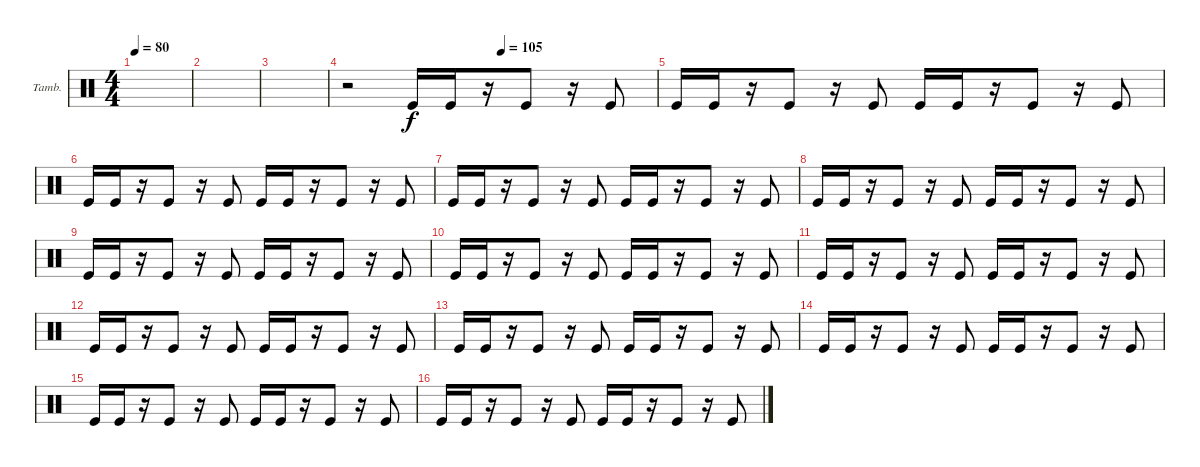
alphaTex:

\bracketExtendMode groupsimilarinstruments
\firstSystemTrackNameOrientation horizontal
\otherSystemsTrackNameOrientation horizontal
\track ("Tambourine" "Tamb.") {instrument percussion}
\staff {score}
\articulation defaults
\ts (4 4)
\tempo 80
\clef neutral
\scale
0.333333
\ks c
|
\scale
0.333333 |
\scale
0.333333 |
\tempo (105 0.5)
\scale
0.333333 r.2 "Kick (hit)".16 "Kick (hit)".16 r.16 "Kick (hit)".8 r.16 "Kick (hit)".8 |
\scale
0.333333 "Kick (hit)".16 "Kick (hit)".16 r.16 "Kick (hit)".8 r.16 "Kick (hit)".8 "Kick (hit)".16 "Kick (hit)".16 r.16 "Kick (hit)".8 r.16 "Kick (hit)".8 |
\scale
0.333333 "Kick (hit)".16 "Kick (hit)".16 r.16 "Kick (hit)".8 r.16 "Kick (hit)".8 "Kick (hit)".16 "Kick (hit)".16 r.16 "Kick (hit)".8 r.16 "Kick (hit)".8 |
\scale
0.333333 "Kick (hit)".16 "Kick (hit)".16 r.16 "Kick (hit)".8 r.16 "Kick (hit)".8 "Kick (hit)".16 "Kick (hit)".16 r.16 "Kick (hit)".8 r.16 "Kick (hit)".8 |
\scale
0.333333 "Kick (hit)".16 "Kick (hit)".16 r.16 "Kick (hit)".8 r.16 "Kick (hit)".8 "Kick (hit)".16 "Kick (hit)".16 r.16 "Kick (hit)".8 r.16 "Kick (hit)".8 |
\scale
0.333333 "Kick (hit)".16 "Kick (hit)".16 r.16 "Kick (hit)".8 r.16 "Kick (hit)".8 "Kick (hit)".16 "Kick (hit)".16 r.16 "Kick (hit)".8 r.16 "Kick (hit)".8 |
\scale
0.333333 "Kick (hit)".16 "Kick (hit)".16 r.16 "Kick (hit)".8 r.16 "Kick (hit)".8 "Kick (hit)".16 "Kick (hit)".16 r.16 "Kick (hit)".8 r.16 "Kick (hit)".8 |
\scale
0.333333 "Kick (hit)".16 "Kick (hit)".16 r.16 "Kick (hit)".8 r.16 "Kick (hit)".8 "Kick (hit)".16 "Kick (hit)".16 r.16 "Kick (hit)".8 r.16 "Kick (hit)".8 |
\scale
0.333333 "Kick (hit)".16 "Kick (hit)".16 r.16 "Kick (hit)".8 r.16 "Kick (hit)".8 "Kick (hit)".16 "Kick (hit)".16 r.16 "Kick (hit)".8 r.16 "Kick (hit)".8 |
\scale
0.333333 "Kick (hit)".16 "Kick (hit)".16 r.16 "Kick (hit)".8 r.16 "Kick (hit)".8 "Kick (hit)".16 "Kick (hit)".16 r.16 "Kick (hit)".8 r.16 "Kick (hit)".8 |
\scale
0.333333 "Kick (hit)".16 "Kick (hit)".16 r.16 "Kick (hit)".8 r.16 "Kick (hit)".8 "Kick (hit)".16 "Kick (hit)".16 r.16 "Kick (hit)".8 r.16 "Kick (hit)".8 |
\scale
0.333333 "Kick (hit)".16 "Kick (hit)".16 r.16 "Kick (hit)".8 r.16 "Kick (hit)".8 "Kick (hit)".16 "Kick (hit)".16 r.16 "Kick (hit)".8 r.16 "Kick (hit)".8 |
\scale
0.333333 "Kick (hit)".16 "Kick (hit)".16 r.16 "Kick (hit)".8 r.16 "Kick (hit)".8 "Kick (hit)".16 "Kick (hit)".16 r.16 "Kick (hit)".8 r.16 "Kick (hit)".8
